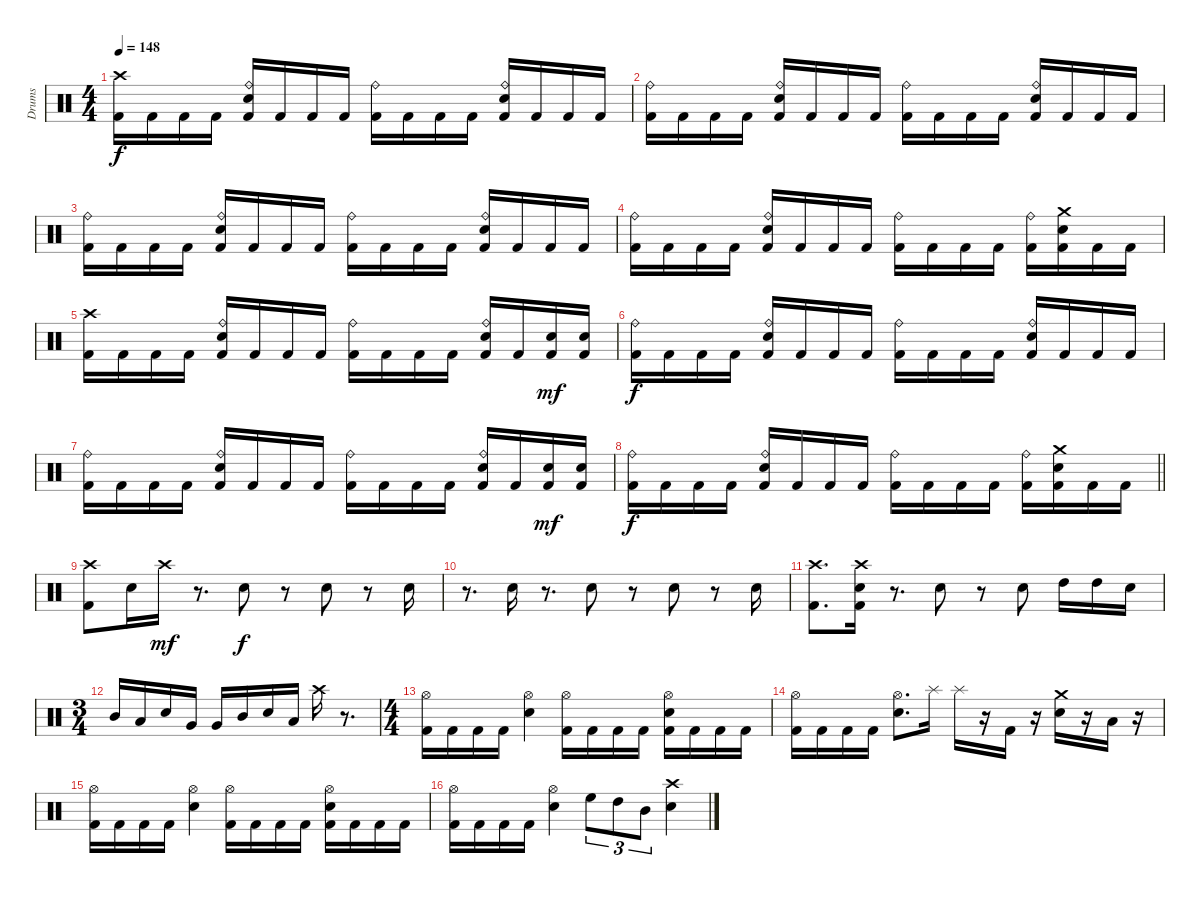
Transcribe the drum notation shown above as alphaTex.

\track ("Drums" "Drums") {instrument percussion}
\staff {score}
\articulation defaults
\ts (4 4)
\tempo 148
\clef neutral
\ks c
("Crash high (hit)" "Kick (hit) 2").16{dy f} "Kick (hit) 2".16 "Kick (hit) 2".16 "Kick (hit) 2".16 ("Ride (bell)" "Electric Snare (hit)" "Kick (hit) 2").16 "Kick (hit) 2".16 "Kick (hit) 2".16 "Kick (hit) 2".16 ("Ride (bell)" "Kick (hit) 2").16 "Kick (hit) 2".16 "Kick (hit) 2".16 "Kick (hit) 2".16 ("Ride (bell)" "Electric Snare (hit)" "Kick (hit) 2").16 "Kick (hit) 2".16 "Kick (hit) 2".16 "Kick (hit) 2".16 |
("Ride (bell)" "Kick (hit) 2").16 "Kick (hit) 2".16 "Kick (hit) 2".16 "Kick (hit) 2".16 ("Ride (bell)" "Electric Snare (hit)" "Kick (hit) 2").16 "Kick (hit) 2".16 "Kick (hit) 2".16 "Kick (hit) 2".16 ("Ride (bell)" "Kick (hit) 2").16 "Kick (hit) 2".16 "Kick (hit) 2".16 "Kick (hit) 2".16 ("Ride (bell)" "Electric Snare (hit)" "Kick (hit) 2").16 "Kick (hit) 2".16 "Kick (hit) 2".16 "Kick (hit) 2".16 |
("Ride (bell)" "Kick (hit) 2").16 "Kick (hit) 2".16 "Kick (hit) 2".16 "Kick (hit) 2".16 ("Ride (bell)" "Electric Snare (hit)" "Kick (hit) 2").16 "Kick (hit) 2".16 "Kick (hit) 2".16 "Kick (hit) 2".16 ("Ride (bell)" "Kick (hit) 2").16 "Kick (hit) 2".16 "Kick (hit) 2".16 "Kick (hit) 2".16 ("Ride (bell)" "Electric Snare (hit)" "Kick (hit) 2").16 "Kick (hit) 2".16 "Kick (hit) 2".16 "Kick (hit) 2".16 |
("Ride (bell)" "Kick (hit) 2").16 "Kick (hit) 2".16 "Kick (hit) 2".16 "Kick (hit) 2".16 ("Ride (bell)" "Electric Snare (hit)" "Kick (hit) 2").16 "Kick (hit) 2".16 "Kick (hit) 2".16 "Kick (hit) 2".16 ("Ride (bell)" "Kick (hit) 2").16 "Kick (hit) 2".16 "Kick (hit) 2".16 "Kick (hit) 2".16 ("Ride (bell)" "Kick (hit) 2").16 ("Crash medium (hit)" "Electric Snare (hit)" "Kick (hit) 2").16 "Kick (hit) 2".16 "Kick (hit) 2".16 |
("Crash high (hit)" "Kick (hit) 2").16 "Kick (hit) 2".16 "Kick (hit) 2".16 "Kick (hit) 2".16 ("Ride (bell)" "Electric Snare (hit)" "Kick (hit) 2").16 "Kick (hit) 2".16 "Kick (hit) 2".16 "Kick (hit) 2".16 ("Ride (bell)" "Kick (hit) 2").16 "Kick (hit) 2".16 "Kick (hit) 2".16 "Kick (hit) 2".16 ("Ride (bell)" "Electric Snare (hit)" "Kick (hit) 2").16 "Kick (hit) 2".16 ("Electric Snare (hit)" "Kick (hit) 2").16{dy mf} ("Electric Snare (hit)" "Kick (hit) 2").16 |
("Ride (bell)" "Kick (hit) 2").16{dy f} "Kick (hit) 2".16 "Kick (hit) 2".16 "Kick (hit) 2".16 ("Ride (bell)" "Electric Snare (hit)" "Kick (hit) 2").16 "Kick (hit) 2".16 "Kick (hit) 2".16 "Kick (hit) 2".16 ("Ride (bell)" "Kick (hit) 2").16 "Kick (hit) 2".16 "Kick (hit) 2".16 "Kick (hit) 2".16 ("Ride (bell)" "Electric Snare (hit)" "Kick (hit) 2").16 "Kick (hit) 2".16 "Kick (hit) 2".16 "Kick (hit) 2".16 |
("Ride (bell)" "Kick (hit) 2").16 "Kick (hit) 2".16 "Kick (hit) 2".16 "Kick (hit) 2".16 ("Ride (bell)" "Electric Snare (hit)" "Kick (hit) 2").16 "Kick (hit) 2".16 "Kick (hit) 2".16 "Kick (hit) 2".16 ("Ride (bell)" "Kick (hit) 2").16 "Kick (hit) 2".16 "Kick (hit) 2".16 "Kick (hit) 2".16 ("Ride (bell)" "Electric Snare (hit)" "Kick (hit) 2").16 "Kick (hit) 2".16 ("Electric Snare (hit)" "Kick (hit) 2").16{dy mf} ("Electric Snare (hit)" "Kick (hit) 2").16 |
\barLineRight lightlight
("Ride (bell)" "Kick (hit) 2").16{dy f} "Kick (hit) 2".16 "Kick (hit) 2".16 "Kick (hit) 2".16 ("Ride (bell)" "Electric Snare (hit)" "Kick (hit) 2").16 "Kick (hit) 2".16 "Kick (hit) 2".16 "Kick (hit) 2".16 ("Ride (bell)" "Kick (hit) 2").16 "Kick (hit) 2".16 "Kick (hit) 2".16 "Kick (hit) 2".16 ("Ride (bell)" "Kick (hit) 2").16 ("Crash medium (hit)" "Electric Snare (hit)" "Kick (hit) 2").16 "Kick (hit) 2".16 "Kick (hit) 2".16 |
\section ("" "")
("Crash high (hit)" "Kick (hit) 2").8 "Electric Snare (hit)".16 "Crash high (hit)".16{dy mf} r.8{d} "Electric Snare (hit)".8{dy f} r.8 "Electric Snare (hit)".8 r.8 "Electric Snare (hit)".16 |
r.8{d} "Electric Snare (hit)".16 r.8{d} "Electric Snare (hit)".8 r.8 "Electric Snare (hit)".8 r.8 "Electric Snare (hit)".16 |
("Crash high (hit)" "Kick (hit) 2").8{d} ("Crash high (hit)" "Electric Snare (hit)" "Kick (hit) 2").16 r.8{d} "Electric Snare (hit)".8 r.8 "Electric Snare (hit)".8 "High Tom (hit)".16 "High Tom (hit)".16 "Electric Snare (hit)".16 |
\ts (3 4)
"Mid Tom (hit)".16 "Low Tom (hit)".16 "Electric Snare (hit)".16 "Very Low Tom (hit)".16 "Very Low Tom (hit)".16 "Mid Tom (hit)".16 "Electric Snare (hit)".16 "Low Tom (hit)".16 "Crash high (hit)".16 r.8{d} |
\ts (4 4)
("Hi-Hat (open)" "Kick (hit) 2").16 "Kick (hit) 2".16 "Kick (hit) 2".16 "Kick (hit) 2".16 ("Electric Snare (hit)" "Hi-Hat (open)").4 ("Hi-Hat (open)" "Kick (hit) 2").16 "Kick (hit) 2".16 "Kick (hit) 2".16 "Kick (hit) 2".16 ("Electric Snare (hit)" "Hi-Hat (open)" "Kick (hit) 2").16 "Kick (hit) 2".16 "Kick (hit) 2".16 "Kick (hit) 2".16 |
("Hi-Hat (open)" "Kick (hit) 2").16 "Kick (hit) 2".16 "Kick (hit) 2".16 "Kick (hit) 2".16 ("Electric Snare (hit)" "Hi-Hat (open)").8{d} "Splash (hit)".16 "Splash (hit)".16 r.16 "Kick (hit) 2".16 r.16 ("Electric Snare (hit)" "Crash medium (hit)").16 r.16 "Low Tom (hit)".16 r.16 |
("Hi-Hat (open)" "Kick (hit) 2").16 "Kick (hit) 2".16 "Kick (hit) 2".16 "Kick (hit) 2".16 ("Electric Snare (hit)" "Hi-Hat (open)").4 ("Hi-Hat (open)" "Kick (hit) 2").16 "Kick (hit) 2".16 "Kick (hit) 2".16 "Kick (hit) 2".16 ("Electric Snare (hit)" "Hi-Hat (open)" "Kick (hit) 2").16 "Kick (hit) 2".16 "Kick (hit) 2".16 "Kick (hit) 2".16 |
("Hi-Hat (open)" "Kick (hit) 2").16 "Kick (hit) 2".16 "Kick (hit) 2".16 "Kick (hit) 2".16 ("Electric Snare (hit)" "Hi-Hat (open)").4 "High Floor Tom (hit)".8{tu (3 2)} "High Tom (hit)".8{tu (3 2)} "Mid Tom (hit)".8{tu (3 2)} ("Electric Snare (hit)" "Crash high (hit)").4
